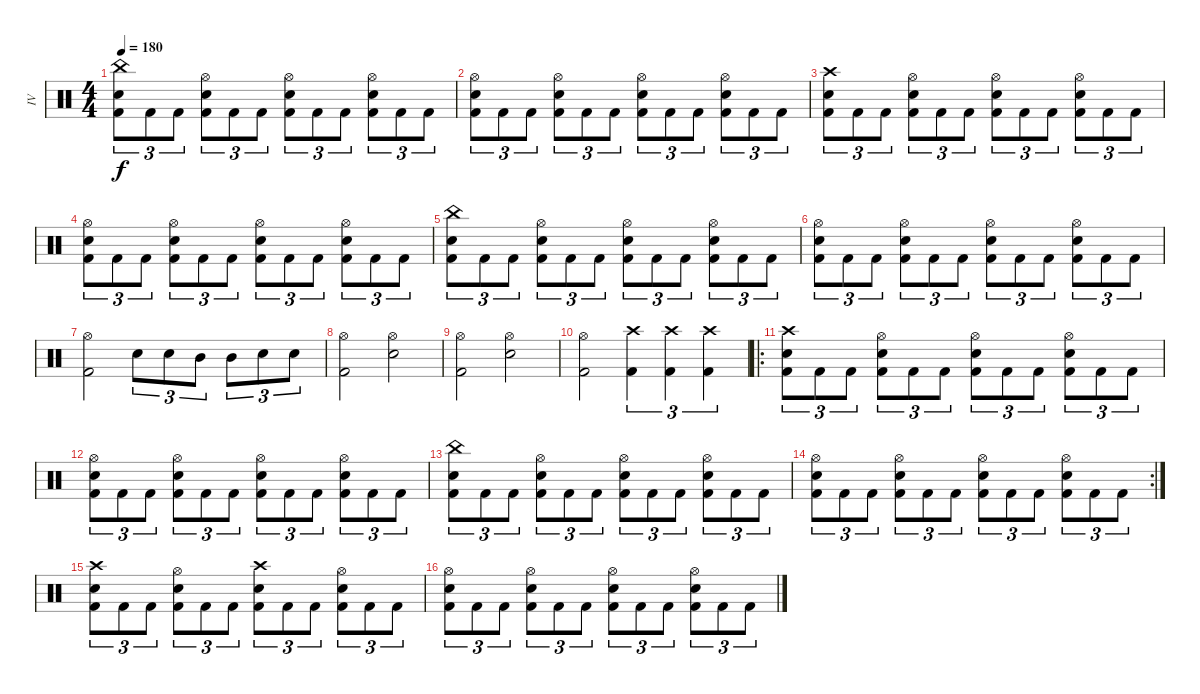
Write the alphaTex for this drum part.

\track ("IV" "IV") {instrument percussion}
\staff {score}
\articulation defaults
\ts (4 4)
\tempo 180
\clef neutral
\ks c
("China (hit)" "Snare (hit) 2" "Kick (hit) 2").8{tu (3 2) dy f} "Kick (hit) 2".8{tu (3 2)} "Kick (hit) 2".8{tu (3 2)} ("Hi-Hat (open)" "Snare (hit) 2" "Kick (hit) 2").8{tu (3 2)} "Kick (hit) 2".8{tu (3 2)} "Kick (hit) 2".8{tu (3 2)} ("Hi-Hat (open)" "Snare (hit) 2" "Kick (hit) 2").8{tu (3 2)} "Kick (hit) 2".8{tu (3 2)} "Kick (hit) 2".8{tu (3 2)} ("Hi-Hat (open)" "Snare (hit) 2" "Kick (hit) 2").8{tu (3 2)} "Kick (hit) 2".8{tu (3 2)} "Kick (hit) 2".8{tu (3 2)} |
("Hi-Hat (open)" "Snare (hit) 2" "Kick (hit) 2").8{tu (3 2)} "Kick (hit) 2".8{tu (3 2)} "Kick (hit) 2".8{tu (3 2)} ("Hi-Hat (open)" "Snare (hit) 2" "Kick (hit) 2").8{tu (3 2)} "Kick (hit) 2".8{tu (3 2)} "Kick (hit) 2".8{tu (3 2)} ("Hi-Hat (open)" "Snare (hit) 2" "Kick (hit) 2").8{tu (3 2)} "Kick (hit) 2".8{tu (3 2)} "Kick (hit) 2".8{tu (3 2)} ("Hi-Hat (open)" "Snare (hit) 2" "Kick (hit) 2").8{tu (3 2)} "Kick (hit) 2".8{tu (3 2)} "Kick (hit) 2".8{tu (3 2)} |
("Crash high (hit)" "Snare (hit) 2" "Kick (hit) 2").8{tu (3 2)} "Kick (hit) 2".8{tu (3 2)} "Kick (hit) 2".8{tu (3 2)} ("Hi-Hat (open)" "Snare (hit) 2" "Kick (hit) 2").8{tu (3 2)} "Kick (hit) 2".8{tu (3 2)} "Kick (hit) 2".8{tu (3 2)} ("Hi-Hat (open)" "Snare (hit) 2" "Kick (hit) 2").8{tu (3 2)} "Kick (hit) 2".8{tu (3 2)} "Kick (hit) 2".8{tu (3 2)} ("Hi-Hat (open)" "Snare (hit) 2" "Kick (hit) 2").8{tu (3 2)} "Kick (hit) 2".8{tu (3 2)} "Kick (hit) 2".8{tu (3 2)} |
("Hi-Hat (open)" "Snare (hit) 2" "Kick (hit) 2").8{tu (3 2)} "Kick (hit) 2".8{tu (3 2)} "Kick (hit) 2".8{tu (3 2)} ("Hi-Hat (open)" "Snare (hit) 2" "Kick (hit) 2").8{tu (3 2)} "Kick (hit) 2".8{tu (3 2)} "Kick (hit) 2".8{tu (3 2)} ("Hi-Hat (open)" "Snare (hit) 2" "Kick (hit) 2").8{tu (3 2)} "Kick (hit) 2".8{tu (3 2)} "Kick (hit) 2".8{tu (3 2)} ("Hi-Hat (open)" "Snare (hit) 2" "Kick (hit) 2").8{tu (3 2)} "Kick (hit) 2".8{tu (3 2)} "Kick (hit) 2".8{tu (3 2)} |
("China (hit)" "Snare (hit) 2" "Kick (hit) 2").8{tu (3 2)} "Kick (hit) 2".8{tu (3 2)} "Kick (hit) 2".8{tu (3 2)} ("Hi-Hat (open)" "Snare (hit) 2" "Kick (hit) 2").8{tu (3 2)} "Kick (hit) 2".8{tu (3 2)} "Kick (hit) 2".8{tu (3 2)} ("Hi-Hat (open)" "Snare (hit) 2" "Kick (hit) 2").8{tu (3 2)} "Kick (hit) 2".8{tu (3 2)} "Kick (hit) 2".8{tu (3 2)} ("Hi-Hat (open)" "Snare (hit) 2" "Kick (hit) 2").8{tu (3 2)} "Kick (hit) 2".8{tu (3 2)} "Kick (hit) 2".8{tu (3 2)} |
("Hi-Hat (open)" "Snare (hit) 2" "Kick (hit) 2").8{tu (3 2)} "Kick (hit) 2".8{tu (3 2)} "Kick (hit) 2".8{tu (3 2)} ("Hi-Hat (open)" "Snare (hit) 2" "Kick (hit) 2").8{tu (3 2)} "Kick (hit) 2".8{tu (3 2)} "Kick (hit) 2".8{tu (3 2)} ("Hi-Hat (open)" "Snare (hit) 2" "Kick (hit) 2").8{tu (3 2)} "Kick (hit) 2".8{tu (3 2)} "Kick (hit) 2".8{tu (3 2)} ("Hi-Hat (open)" "Snare (hit) 2" "Kick (hit) 2").8{tu (3 2)} "Kick (hit) 2".8{tu (3 2)} "Kick (hit) 2".8{tu (3 2)} |
("Hi-Hat (open)" "Kick (hit) 2").2 "Snare (hit) 2".8{tu (3 2)} "Snare (hit) 2".8{tu (3 2)} "Mid Tom (hit)".8{tu (3 2)} "Mid Tom (hit)".8{tu (3 2)} "Snare (hit) 2".8{tu (3 2)} "Snare (hit) 2".8{tu (3 2)} |
("Hi-Hat (open)" "Kick (hit) 2").2 ("Hi-Hat (open)" "Snare (hit) 2").2 |
("Hi-Hat (open)" "Kick (hit) 2").2 ("Hi-Hat (open)" "Snare (hit) 2").2 |
("Hi-Hat (open)" "Kick (hit) 2").2 ("Crash high (hit)" "Kick (hit) 2").4{tu (3 2)} ("Crash high (hit)" "Kick (hit) 2").4{tu (3 2)} ("Crash high (hit)" "Kick (hit) 2").4{tu (3 2)} |
\ro
("Crash high (hit)" "Snare (hit) 2" "Kick (hit) 2").8{tu (3 2)} "Kick (hit) 2".8{tu (3 2)} "Kick (hit) 2".8{tu (3 2)} ("Hi-Hat (open)" "Snare (hit) 2" "Kick (hit) 2").8{tu (3 2)} "Kick (hit) 2".8{tu (3 2)} "Kick (hit) 2".8{tu (3 2)} ("Hi-Hat (open)" "Snare (hit) 2" "Kick (hit) 2").8{tu (3 2)} "Kick (hit) 2".8{tu (3 2)} "Kick (hit) 2".8{tu (3 2)} ("Hi-Hat (open)" "Snare (hit) 2" "Kick (hit) 2").8{tu (3 2)} "Kick (hit) 2".8{tu (3 2)} "Kick (hit) 2".8{tu (3 2)} |
("Hi-Hat (open)" "Snare (hit) 2" "Kick (hit) 2").8{tu (3 2)} "Kick (hit) 2".8{tu (3 2)} "Kick (hit) 2".8{tu (3 2)} ("Hi-Hat (open)" "Snare (hit) 2" "Kick (hit) 2").8{tu (3 2)} "Kick (hit) 2".8{tu (3 2)} "Kick (hit) 2".8{tu (3 2)} ("Hi-Hat (open)" "Snare (hit) 2" "Kick (hit) 2").8{tu (3 2)} "Kick (hit) 2".8{tu (3 2)} "Kick (hit) 2".8{tu (3 2)} ("Hi-Hat (open)" "Snare (hit) 2" "Kick (hit) 2").8{tu (3 2)} "Kick (hit) 2".8{tu (3 2)} "Kick (hit) 2".8{tu (3 2)} |
("China (hit)" "Snare (hit) 2" "Kick (hit) 2").8{tu (3 2)} "Kick (hit) 2".8{tu (3 2)} "Kick (hit) 2".8{tu (3 2)} ("Hi-Hat (open)" "Snare (hit) 2" "Kick (hit) 2").8{tu (3 2)} "Kick (hit) 2".8{tu (3 2)} "Kick (hit) 2".8{tu (3 2)} ("Hi-Hat (open)" "Snare (hit) 2" "Kick (hit) 2").8{tu (3 2)} "Kick (hit) 2".8{tu (3 2)} "Kick (hit) 2".8{tu (3 2)} ("Hi-Hat (open)" "Snare (hit) 2" "Kick (hit) 2").8{tu (3 2)} "Kick (hit) 2".8{tu (3 2)} "Kick (hit) 2".8{tu (3 2)} |
\rc 2
("Hi-Hat (open)" "Snare (hit) 2" "Kick (hit) 2").8{tu (3 2)} "Kick (hit) 2".8{tu (3 2)} "Kick (hit) 2".8{tu (3 2)} ("Hi-Hat (open)" "Snare (hit) 2" "Kick (hit) 2").8{tu (3 2)} "Kick (hit) 2".8{tu (3 2)} "Kick (hit) 2".8{tu (3 2)} ("Hi-Hat (open)" "Snare (hit) 2" "Kick (hit) 2").8{tu (3 2)} "Kick (hit) 2".8{tu (3 2)} "Kick (hit) 2".8{tu (3 2)} ("Hi-Hat (open)" "Snare (hit) 2" "Kick (hit) 2").8{tu (3 2)} "Kick (hit) 2".8{tu (3 2)} "Kick (hit) 2".8{tu (3 2)} |
("Crash high (hit)" "Snare (hit) 2" "Kick (hit) 2").8{tu (3 2)} "Kick (hit) 2".8{tu (3 2)} "Kick (hit) 2".8{tu (3 2)} ("Hi-Hat (open)" "Snare (hit) 2" "Kick (hit) 2").8{tu (3 2)} "Kick (hit) 2".8{tu (3 2)} "Kick (hit) 2".8{tu (3 2)} ("Crash high (hit)" "Snare (hit) 2" "Kick (hit) 2").8{tu (3 2)} "Kick (hit) 2".8{tu (3 2)} "Kick (hit) 2".8{tu (3 2)} ("Hi-Hat (open)" "Snare (hit) 2" "Kick (hit) 2").8{tu (3 2)} "Kick (hit) 2".8{tu (3 2)} "Kick (hit) 2".8{tu (3 2)} |
("Hi-Hat (open)" "Snare (hit) 2" "Kick (hit) 2").8{tu (3 2)} "Kick (hit) 2".8{tu (3 2)} "Kick (hit) 2".8{tu (3 2)} ("Hi-Hat (open)" "Snare (hit) 2" "Kick (hit) 2").8{tu (3 2)} "Kick (hit) 2".8{tu (3 2)} "Kick (hit) 2".8{tu (3 2)} ("Hi-Hat (open)" "Snare (hit) 2" "Kick (hit) 2").8{tu (3 2)} "Kick (hit) 2".8{tu (3 2)} "Kick (hit) 2".8{tu (3 2)} ("Hi-Hat (open)" "Snare (hit) 2" "Kick (hit) 2").8{tu (3 2)} "Kick (hit) 2".8{tu (3 2)} "Kick (hit) 2".8{tu (3 2)}
